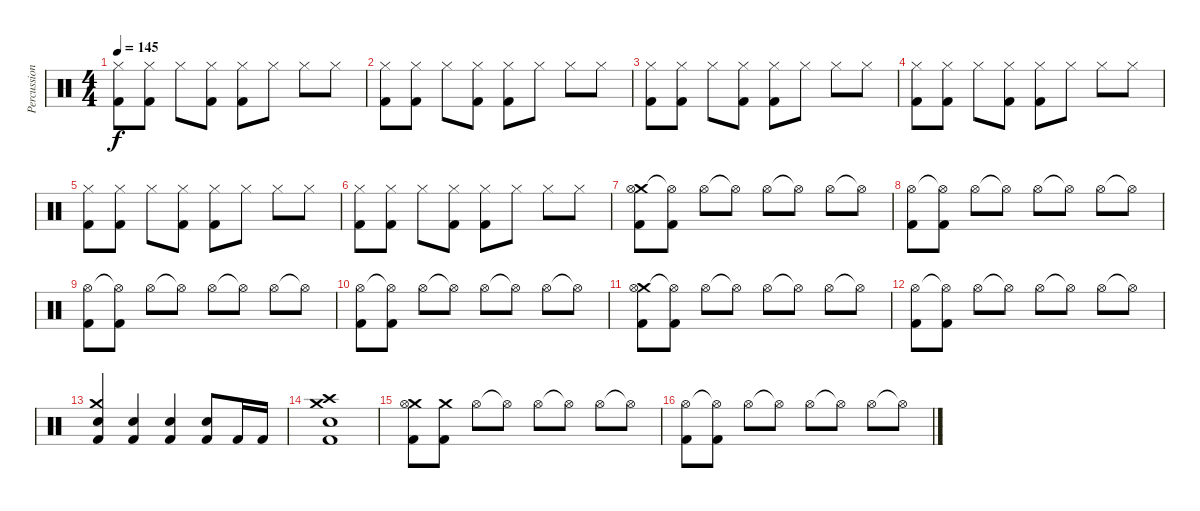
\track ("Percussioni" "Percussion") {instrument percussion}
\staff {score}
\articulation defaults
\ts (4 4)
\tempo 145
\clef neutral
\ks c
("Hi-Hat (closed)" "Kick (hit) 2").8{dy f} ("Hi-Hat (closed)" "Kick (hit) 2").8 "Hi-Hat (closed)".8 ("Hi-Hat (closed)" "Kick (hit) 2").8 ("Hi-Hat (closed)" "Kick (hit) 2").8 "Hi-Hat (closed)".8 "Hi-Hat (closed)".8 "Hi-Hat (closed)".8 |
("Hi-Hat (closed)" "Kick (hit) 2").8 ("Hi-Hat (closed)" "Kick (hit) 2").8 "Hi-Hat (closed)".8 ("Hi-Hat (closed)" "Kick (hit) 2").8 ("Hi-Hat (closed)" "Kick (hit) 2").8 "Hi-Hat (closed)".8 "Hi-Hat (closed)".8 "Hi-Hat (closed)".8 |
("Hi-Hat (closed)" "Kick (hit) 2").8 ("Hi-Hat (closed)" "Kick (hit) 2").8 "Hi-Hat (closed)".8 ("Hi-Hat (closed)" "Kick (hit) 2").8 ("Hi-Hat (closed)" "Kick (hit) 2").8 "Hi-Hat (closed)".8 "Hi-Hat (closed)".8 "Hi-Hat (closed)".8 |
("Hi-Hat (closed)" "Kick (hit) 2").8 ("Hi-Hat (closed)" "Kick (hit) 2").8 "Hi-Hat (closed)".8 ("Hi-Hat (closed)" "Kick (hit) 2").8 ("Hi-Hat (closed)" "Kick (hit) 2").8 "Hi-Hat (closed)".8 "Hi-Hat (closed)".8 "Hi-Hat (closed)".8 |
("Hi-Hat (closed)" "Kick (hit) 2").8 ("Hi-Hat (closed)" "Kick (hit) 2").8 "Hi-Hat (closed)".8 ("Hi-Hat (closed)" "Kick (hit) 2").8 ("Hi-Hat (closed)" "Kick (hit) 2").8 "Hi-Hat (closed)".8 "Hi-Hat (closed)".8 "Hi-Hat (closed)".8 |
("Hi-Hat (closed)" "Kick (hit) 2").8 ("Hi-Hat (closed)" "Kick (hit) 2").8 "Hi-Hat (closed)".8 ("Hi-Hat (closed)" "Kick (hit) 2").8 ("Hi-Hat (closed)" "Kick (hit) 2").8 "Hi-Hat (closed)".8 "Hi-Hat (closed)".8 "Hi-Hat (closed)".8 |
("Crash medium (hit)" "Hi-Hat (open)" "Kick (hit) 2").8 ("Hi-Hat (open)"{t} "Kick (hit) 2").8 "Hi-Hat (open)".8 "Hi-Hat (open)"{t}.8 "Hi-Hat (open)".8 "Hi-Hat (open)"{t}.8 "Hi-Hat (open)".8 "Hi-Hat (open)"{t}.8 |
("Hi-Hat (open)" "Kick (hit) 2").8 ("Hi-Hat (open)"{t} "Kick (hit) 2").8 "Hi-Hat (open)".8 "Hi-Hat (open)"{t}.8 "Hi-Hat (open)".8 "Hi-Hat (open)"{t}.8 "Hi-Hat (open)".8 "Hi-Hat (open)"{t}.8 |
("Hi-Hat (open)" "Kick (hit) 2").8 ("Hi-Hat (open)"{t} "Kick (hit) 2").8 "Hi-Hat (open)".8 "Hi-Hat (open)"{t}.8 "Hi-Hat (open)".8 "Hi-Hat (open)"{t}.8 "Hi-Hat (open)".8 "Hi-Hat (open)"{t}.8 |
("Hi-Hat (open)" "Kick (hit) 2").8 ("Hi-Hat (open)"{t} "Kick (hit) 2").8 "Hi-Hat (open)".8 "Hi-Hat (open)"{t}.8 "Hi-Hat (open)".8 "Hi-Hat (open)"{t}.8 "Hi-Hat (open)".8 "Hi-Hat (open)"{t}.8 |
("Crash medium (hit)" "Hi-Hat (open)" "Kick (hit) 2").8 ("Hi-Hat (open)"{t} "Kick (hit) 2").8 "Hi-Hat (open)".8 "Hi-Hat (open)"{t}.8 "Hi-Hat (open)".8 "Hi-Hat (open)"{t}.8 "Hi-Hat (open)".8 "Hi-Hat (open)"{t}.8 |
("Hi-Hat (open)" "Kick (hit) 2").8 ("Hi-Hat (open)"{t} "Kick (hit) 2").8 "Hi-Hat (open)".8 "Hi-Hat (open)"{t}.8 "Hi-Hat (open)".8 "Hi-Hat (open)"{t}.8 "Hi-Hat (open)".8 "Hi-Hat (open)"{t}.8 |
("Crash medium (hit)" "Snare (hit) 2" "Kick (hit) 2").4 ("Snare (hit) 2" "Kick (hit) 2").4 ("Snare (hit) 2" "Kick (hit) 2").4 ("Snare (hit) 2" "Kick (hit) 2").8 "Kick (hit) 2".16 "Kick (hit) 2".16 |
("Crash medium (hit)" "Crash high (hit)" "Snare (hit) 2" "Kick (hit) 2").1 |
("Crash medium (hit)" "Hi-Hat (open)" "Kick (hit) 2").8 ("Crash medium (hit)" "Kick (hit) 2").8 "Hi-Hat (open)".8 "Hi-Hat (open)"{t}.8 "Hi-Hat (open)".8 "Hi-Hat (open)"{t}.8 "Hi-Hat (open)".8 "Hi-Hat (open)"{t}.8 |
("Hi-Hat (open)" "Kick (hit) 2").8 ("Hi-Hat (open)"{t} "Kick (hit) 2").8 "Hi-Hat (open)".8 "Hi-Hat (open)"{t}.8 "Hi-Hat (open)".8 "Hi-Hat (open)"{t}.8 "Hi-Hat (open)".8 "Hi-Hat (open)"{t}.8
